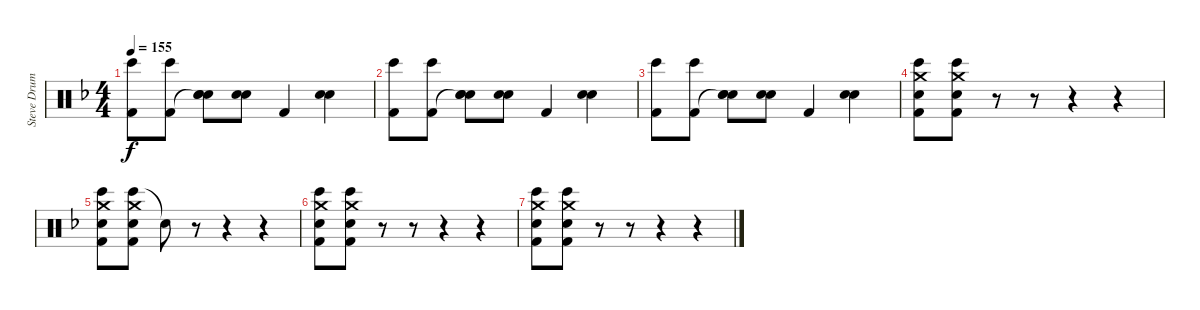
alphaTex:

\track ("Steve Drums" "Steve Drum") {instrument percussion}
\staff {score}
\articulation defaults
\ts (4 4)
\tempo 155
\clef neutral
\ks f
("Bongo High (hit)" "Kick (hit) 2").8{dy f} ("Bongo High (hit)" "Kick (hit) 2").8 ("Snare (hit) 2" "Snare (hit)"{t} "Electric Snare (hit)").8 ("Snare (hit) 2" "Electric Snare (hit)").8 "Kick (hit) 2".4 ("Snare (hit) 2" "Electric Snare (hit)").4 |
("Bongo High (hit)" "Kick (hit) 2").8 ("Bongo High (hit)" "Kick (hit) 2").8 ("Snare (hit) 2" "Snare (hit)"{t} "Electric Snare (hit)").8 ("Snare (hit) 2" "Electric Snare (hit)").8 "Kick (hit) 2".4 ("Snare (hit) 2" "Electric Snare (hit)").4 |
("Bongo High (hit)" "Kick (hit) 2").8 ("Bongo High (hit)" "Kick (hit) 2").8 ("Snare (hit) 2" "Snare (hit)"{t} "Electric Snare (hit)").8 ("Snare (hit) 2" "Electric Snare (hit)").8 "Kick (hit) 2".4 ("Snare (hit) 2" "Electric Snare (hit)").4 |
("Bongo High (hit)" "Crash medium (hit)" "Snare (hit) 2" "Kick (hit) 2").8 ("Bongo High (hit)" "Crash medium (hit)" "Snare (hit) 2" "Kick (hit) 2").8 r.8 r.8 r.4 r.4 |
("Bongo High (hit)" "Crash medium (hit)" "Snare (hit) 2" "Kick (hit) 2").8 ("Bongo High (hit)" "Crash medium (hit)" "Snare (hit) 2" "Kick (hit) 2").8 "Snare (hit)"{t}.8 r.8 r.4 r.4 |
("Bongo High (hit)" "Crash medium (hit)" "Snare (hit) 2" "Kick (hit) 2").8 ("Bongo High (hit)" "Crash medium (hit)" "Snare (hit) 2" "Kick (hit) 2").8 r.8 r.8 r.4 r.4 |
("Bongo High (hit)" "Crash medium (hit)" "Snare (hit) 2" "Kick (hit) 2").8 ("Bongo High (hit)" "Crash medium (hit)" "Snare (hit) 2" "Kick (hit) 2").8 r.8 r.8 r.4 r.4
